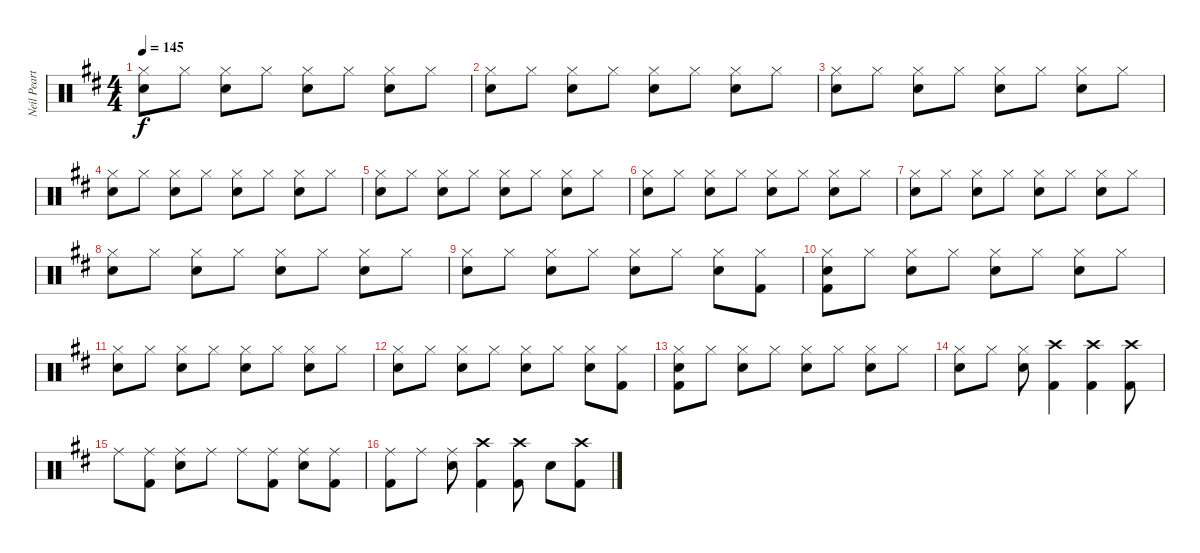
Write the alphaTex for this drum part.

\track ("Neil Peart" "Neil Peart") {instrument percussion}
\staff {score}
\articulation defaults
\ts (4 4)
\tempo 145
\clef neutral
\ks d
("Hi-Hat (closed)" "Snare (hit) 2").8{dy f} "Hi-Hat (closed)".8 ("Hi-Hat (closed)" "Snare (hit) 2").8 "Hi-Hat (closed)".8 ("Hi-Hat (closed)" "Snare (hit) 2").8 "Hi-Hat (closed)".8 ("Hi-Hat (closed)" "Snare (hit) 2").8 "Hi-Hat (closed)".8 |
("Hi-Hat (closed)" "Snare (hit) 2").8 "Hi-Hat (closed)".8 ("Hi-Hat (closed)" "Snare (hit) 2").8 "Hi-Hat (closed)".8 ("Hi-Hat (closed)" "Snare (hit) 2").8 "Hi-Hat (closed)".8 ("Hi-Hat (closed)" "Snare (hit) 2").8 "Hi-Hat (closed)".8 |
("Hi-Hat (closed)" "Snare (hit) 2").8 "Hi-Hat (closed)".8 ("Hi-Hat (closed)" "Snare (hit) 2").8 "Hi-Hat (closed)".8 ("Hi-Hat (closed)" "Snare (hit) 2").8 "Hi-Hat (closed)".8 ("Hi-Hat (closed)" "Snare (hit) 2").8 "Hi-Hat (closed)".8 |
("Hi-Hat (closed)" "Snare (hit) 2").8 "Hi-Hat (closed)".8 ("Hi-Hat (closed)" "Snare (hit) 2").8 "Hi-Hat (closed)".8 ("Hi-Hat (closed)" "Snare (hit) 2").8 "Hi-Hat (closed)".8 ("Hi-Hat (closed)" "Snare (hit) 2").8 "Hi-Hat (closed)".8 |
("Hi-Hat (closed)" "Snare (hit) 2").8 "Hi-Hat (closed)".8 ("Hi-Hat (closed)" "Snare (hit) 2").8 "Hi-Hat (closed)".8 ("Hi-Hat (closed)" "Snare (hit) 2").8 "Hi-Hat (closed)".8 ("Hi-Hat (closed)" "Snare (hit) 2").8 "Hi-Hat (closed)".8 |
("Hi-Hat (closed)" "Snare (hit) 2").8 "Hi-Hat (closed)".8 ("Hi-Hat (closed)" "Snare (hit) 2").8 "Hi-Hat (closed)".8 ("Hi-Hat (closed)" "Snare (hit) 2").8 "Hi-Hat (closed)".8 ("Hi-Hat (closed)" "Snare (hit) 2").8 "Hi-Hat (closed)".8 |
("Hi-Hat (closed)" "Snare (hit) 2").8 "Hi-Hat (closed)".8 ("Hi-Hat (closed)" "Snare (hit) 2").8 "Hi-Hat (closed)".8 ("Hi-Hat (closed)" "Snare (hit) 2").8 "Hi-Hat (closed)".8 ("Hi-Hat (closed)" "Snare (hit) 2").8 "Hi-Hat (closed)".8 |
("Hi-Hat (closed)" "Snare (hit) 2").8 "Hi-Hat (closed)".8 ("Hi-Hat (closed)" "Snare (hit) 2").8 "Hi-Hat (closed)".8 ("Hi-Hat (closed)" "Snare (hit) 2").8 "Hi-Hat (closed)".8 ("Hi-Hat (closed)" "Snare (hit) 2").8 "Hi-Hat (closed)".8 |
("Hi-Hat (closed)" "Snare (hit) 2").8 "Hi-Hat (closed)".8 ("Hi-Hat (closed)" "Snare (hit) 2").8 "Hi-Hat (closed)".8 ("Hi-Hat (closed)" "Snare (hit) 2").8 "Hi-Hat (closed)".8 ("Hi-Hat (closed)" "Snare (hit) 2").8 ("Hi-Hat (closed)" "Kick (hit) 2").8 |
("Hi-Hat (closed)" "Snare (hit) 2" "Kick (hit) 2").8 "Hi-Hat (closed)".8 ("Hi-Hat (closed)" "Snare (hit) 2").8 "Hi-Hat (closed)".8 ("Hi-Hat (closed)" "Snare (hit) 2").8 "Hi-Hat (closed)".8 ("Hi-Hat (closed)" "Snare (hit) 2").8 "Hi-Hat (closed)".8 |
("Hi-Hat (closed)" "Snare (hit) 2").8 "Hi-Hat (closed)".8 ("Hi-Hat (closed)" "Snare (hit) 2").8 "Hi-Hat (closed)".8 ("Hi-Hat (closed)" "Snare (hit) 2").8 "Hi-Hat (closed)".8 ("Hi-Hat (closed)" "Snare (hit) 2").8 "Hi-Hat (closed)".8 |
("Hi-Hat (closed)" "Snare (hit) 2").8 "Hi-Hat (closed)".8 ("Hi-Hat (closed)" "Snare (hit) 2").8 "Hi-Hat (closed)".8 ("Hi-Hat (closed)" "Snare (hit) 2").8 "Hi-Hat (closed)".8 ("Hi-Hat (closed)" "Snare (hit) 2").8 ("Hi-Hat (closed)" "Kick (hit) 2").8 |
("Hi-Hat (closed)" "Snare (hit) 2" "Kick (hit) 2").8 "Hi-Hat (closed)".8 ("Hi-Hat (closed)" "Snare (hit) 2").8 "Hi-Hat (closed)".8 ("Hi-Hat (closed)" "Snare (hit) 2").8 "Hi-Hat (closed)".8 ("Hi-Hat (closed)" "Snare (hit) 2").8 "Hi-Hat (closed)".8 |
("Hi-Hat (closed)" "Snare (hit) 2").8 "Hi-Hat (closed)".8 ("Hi-Hat (closed)" "Snare (hit) 2").8 ("Crash high (hit)" "Kick (hit) 2").4 ("Crash high (hit)" "Kick (hit) 2").4 ("Crash high (hit)" "Kick (hit) 2").8 |
"Ride (middle)".8 ("Ride (middle)" "Kick (hit) 2").8 ("Ride (middle)" "Snare (hit) 2").8 "Ride (middle)".8 "Ride (middle)".8 ("Ride (middle)" "Kick (hit) 2").8 ("Ride (middle)" "Snare (hit) 2").8 ("Ride (middle)" "Kick (hit) 2").8 |
("Ride (middle)" "Kick (hit) 2").8 "Ride (middle)".8 ("Ride (middle)" "Snare (hit) 2").8 ("Crash high (hit)" "Kick (hit) 2").4 ("Crash high (hit)" "Kick (hit) 2").8 "Snare (hit) 2".8 ("Crash high (hit)" "Kick (hit) 2").8
